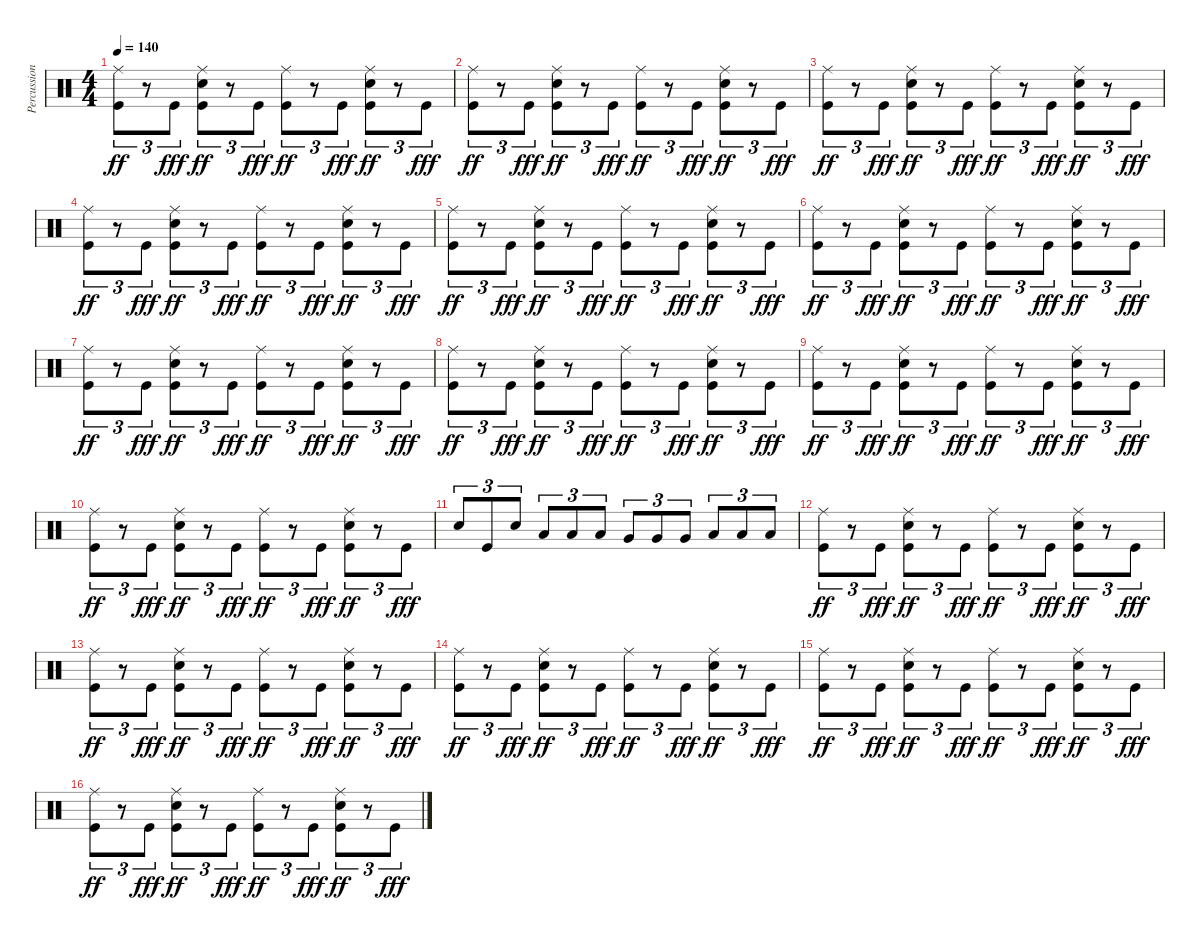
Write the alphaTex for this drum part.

\track ("Percussions" "Percussion") {instrument percussion}
\staff {score}
\articulation defaults
\ts (4 4)
\tempo 140
\clef neutral
\ks c
("Ride (middle)" "Kick (hit)").8{tu (3 2) dy ff} r.8{tu (3 2)} "Kick (hit)".8{tu (3 2) dy fff} ("Ride (middle)" "Snare (hit) 2" "Kick (hit)").8{tu (3 2) dy ff} r.8{tu (3 2)} "Kick (hit)".8{tu (3 2) dy fff} ("Ride (middle)" "Kick (hit)").8{tu (3 2) dy ff} r.8{tu (3 2)} "Kick (hit)".8{tu (3 2) dy fff} ("Ride (middle)" "Snare (hit) 2" "Kick (hit)").8{tu (3 2) dy ff} r.8{tu (3 2)} "Kick (hit)".8{tu (3 2) dy fff} |
("Ride (middle)" "Kick (hit)").8{tu (3 2) dy ff} r.8{tu (3 2)} "Kick (hit)".8{tu (3 2) dy fff} ("Ride (middle)" "Snare (hit) 2" "Kick (hit)").8{tu (3 2) dy ff} r.8{tu (3 2)} "Kick (hit)".8{tu (3 2) dy fff} ("Ride (middle)" "Kick (hit)").8{tu (3 2) dy ff} r.8{tu (3 2)} "Kick (hit)".8{tu (3 2) dy fff} ("Ride (middle)" "Snare (hit) 2" "Kick (hit)").8{tu (3 2) dy ff} r.8{tu (3 2)} "Kick (hit)".8{tu (3 2) dy fff} |
("Ride (middle)" "Kick (hit)").8{tu (3 2) dy ff} r.8{tu (3 2)} "Kick (hit)".8{tu (3 2) dy fff} ("Ride (middle)" "Snare (hit) 2" "Kick (hit)").8{tu (3 2) dy ff} r.8{tu (3 2)} "Kick (hit)".8{tu (3 2) dy fff} ("Ride (middle)" "Kick (hit)").8{tu (3 2) dy ff} r.8{tu (3 2)} "Kick (hit)".8{tu (3 2) dy fff} ("Ride (middle)" "Snare (hit) 2" "Kick (hit)").8{tu (3 2) dy ff} r.8{tu (3 2)} "Kick (hit)".8{tu (3 2) dy fff} |
("Ride (middle)" "Kick (hit)").8{tu (3 2) dy ff} r.8{tu (3 2)} "Kick (hit)".8{tu (3 2) dy fff} ("Ride (middle)" "Snare (hit) 2" "Kick (hit)").8{tu (3 2) dy ff} r.8{tu (3 2)} "Kick (hit)".8{tu (3 2) dy fff} ("Ride (middle)" "Kick (hit)").8{tu (3 2) dy ff} r.8{tu (3 2)} "Kick (hit)".8{tu (3 2) dy fff} ("Ride (middle)" "Snare (hit) 2" "Kick (hit)").8{tu (3 2) dy ff} r.8{tu (3 2)} "Kick (hit)".8{tu (3 2) dy fff} |
("Ride (middle)" "Kick (hit)").8{tu (3 2) dy ff} r.8{tu (3 2)} "Kick (hit)".8{tu (3 2) dy fff} ("Ride (middle)" "Snare (hit) 2" "Kick (hit)").8{tu (3 2) dy ff} r.8{tu (3 2)} "Kick (hit)".8{tu (3 2) dy fff} ("Ride (middle)" "Kick (hit)").8{tu (3 2) dy ff} r.8{tu (3 2)} "Kick (hit)".8{tu (3 2) dy fff} ("Ride (middle)" "Snare (hit) 2" "Kick (hit)").8{tu (3 2) dy ff} r.8{tu (3 2)} "Kick (hit)".8{tu (3 2) dy fff} |
("Ride (middle)" "Kick (hit)").8{tu (3 2) dy ff} r.8{tu (3 2)} "Kick (hit)".8{tu (3 2) dy fff} ("Ride (middle)" "Snare (hit) 2" "Kick (hit)").8{tu (3 2) dy ff} r.8{tu (3 2)} "Kick (hit)".8{tu (3 2) dy fff} ("Ride (middle)" "Kick (hit)").8{tu (3 2) dy ff} r.8{tu (3 2)} "Kick (hit)".8{tu (3 2) dy fff} ("Ride (middle)" "Snare (hit) 2" "Kick (hit)").8{tu (3 2) dy ff} r.8{tu (3 2)} "Kick (hit)".8{tu (3 2) dy fff} |
("Ride (middle)" "Kick (hit)").8{tu (3 2) dy ff} r.8{tu (3 2)} "Kick (hit)".8{tu (3 2) dy fff} ("Ride (middle)" "Snare (hit) 2" "Kick (hit)").8{tu (3 2) dy ff} r.8{tu (3 2)} "Kick (hit)".8{tu (3 2) dy fff} ("Ride (middle)" "Kick (hit)").8{tu (3 2) dy ff} r.8{tu (3 2)} "Kick (hit)".8{tu (3 2) dy fff} ("Ride (middle)" "Snare (hit) 2" "Kick (hit)").8{tu (3 2) dy ff} r.8{tu (3 2)} "Kick (hit)".8{tu (3 2) dy fff} |
("Ride (middle)" "Kick (hit)").8{tu (3 2) dy ff} r.8{tu (3 2)} "Kick (hit)".8{tu (3 2) dy fff} ("Ride (middle)" "Snare (hit) 2" "Kick (hit)").8{tu (3 2) dy ff} r.8{tu (3 2)} "Kick (hit)".8{tu (3 2) dy fff} ("Ride (middle)" "Kick (hit)").8{tu (3 2) dy ff} r.8{tu (3 2)} "Kick (hit)".8{tu (3 2) dy fff} ("Ride (middle)" "Snare (hit) 2" "Kick (hit)").8{tu (3 2) dy ff} r.8{tu (3 2)} "Kick (hit)".8{tu (3 2) dy fff} |
("Ride (middle)" "Kick (hit)").8{tu (3 2) dy ff} r.8{tu (3 2)} "Kick (hit)".8{tu (3 2) dy fff} ("Ride (middle)" "Snare (hit) 2" "Kick (hit)").8{tu (3 2) dy ff} r.8{tu (3 2)} "Kick (hit)".8{tu (3 2) dy fff} ("Ride (middle)" "Kick (hit)").8{tu (3 2) dy ff} r.8{tu (3 2)} "Kick (hit)".8{tu (3 2) dy fff} ("Ride (middle)" "Snare (hit) 2" "Kick (hit)").8{tu (3 2) dy ff} r.8{tu (3 2)} "Kick (hit)".8{tu (3 2) dy fff} |
("Ride (middle)" "Kick (hit)").8{tu (3 2) dy ff} r.8{tu (3 2)} "Kick (hit)".8{tu (3 2) dy fff} ("Ride (middle)" "Snare (hit) 2" "Kick (hit)").8{tu (3 2) dy ff} r.8{tu (3 2)} "Kick (hit)".8{tu (3 2) dy fff} ("Ride (middle)" "Kick (hit)").8{tu (3 2) dy ff} r.8{tu (3 2)} "Kick (hit)".8{tu (3 2) dy fff} ("Ride (middle)" "Snare (hit) 2" "Kick (hit)").8{tu (3 2) dy ff} r.8{tu (3 2)} "Kick (hit)".8{tu (3 2) dy fff} |
"Snare (hit) 2".8{tu (3 2)} "Kick (hit)".8{tu (3 2)} "Snare (hit) 2".8{tu (3 2)} "Low Tom (hit)".8{tu (3 2)} "Low Tom (hit)".8{tu (3 2)} "Low Tom (hit)".8{tu (3 2)} "Very Low Tom (hit)".8{tu (3 2)} "Very Low Tom (hit)".8{tu (3 2)} "Very Low Tom (hit)".8{tu (3 2)} "Low Floor Tom (hit)".8{tu (3 2)} "Low Floor Tom (hit)".8{tu (3 2)} "Low Floor Tom (hit)".8{tu (3 2)} |
("Ride (middle)" "Kick (hit)").8{tu (3 2) dy ff} r.8{tu (3 2)} "Kick (hit)".8{tu (3 2) dy fff} ("Ride (middle)" "Snare (hit) 2" "Kick (hit)").8{tu (3 2) dy ff} r.8{tu (3 2)} "Kick (hit)".8{tu (3 2) dy fff} ("Ride (middle)" "Kick (hit)").8{tu (3 2) dy ff} r.8{tu (3 2)} "Kick (hit)".8{tu (3 2) dy fff} ("Ride (middle)" "Snare (hit) 2" "Kick (hit)").8{tu (3 2) dy ff} r.8{tu (3 2)} "Kick (hit)".8{tu (3 2) dy fff} |
("Ride (middle)" "Kick (hit)").8{tu (3 2) dy ff} r.8{tu (3 2)} "Kick (hit)".8{tu (3 2) dy fff} ("Ride (middle)" "Snare (hit) 2" "Kick (hit)").8{tu (3 2) dy ff} r.8{tu (3 2)} "Kick (hit)".8{tu (3 2) dy fff} ("Ride (middle)" "Kick (hit)").8{tu (3 2) dy ff} r.8{tu (3 2)} "Kick (hit)".8{tu (3 2) dy fff} ("Ride (middle)" "Snare (hit) 2" "Kick (hit)").8{tu (3 2) dy ff} r.8{tu (3 2)} "Kick (hit)".8{tu (3 2) dy fff} |
("Ride (middle)" "Kick (hit)").8{tu (3 2) dy ff} r.8{tu (3 2)} "Kick (hit)".8{tu (3 2) dy fff} ("Ride (middle)" "Snare (hit) 2" "Kick (hit)").8{tu (3 2) dy ff} r.8{tu (3 2)} "Kick (hit)".8{tu (3 2) dy fff} ("Ride (middle)" "Kick (hit)").8{tu (3 2) dy ff} r.8{tu (3 2)} "Kick (hit)".8{tu (3 2) dy fff} ("Ride (middle)" "Snare (hit) 2" "Kick (hit)").8{tu (3 2) dy ff} r.8{tu (3 2)} "Kick (hit)".8{tu (3 2) dy fff} |
("Ride (middle)" "Kick (hit)").8{tu (3 2) dy ff} r.8{tu (3 2)} "Kick (hit)".8{tu (3 2) dy fff} ("Ride (middle)" "Snare (hit) 2" "Kick (hit)").8{tu (3 2) dy ff} r.8{tu (3 2)} "Kick (hit)".8{tu (3 2) dy fff} ("Ride (middle)" "Kick (hit)").8{tu (3 2) dy ff} r.8{tu (3 2)} "Kick (hit)".8{tu (3 2) dy fff} ("Ride (middle)" "Snare (hit) 2" "Kick (hit)").8{tu (3 2) dy ff} r.8{tu (3 2)} "Kick (hit)".8{tu (3 2) dy fff} |
("Ride (middle)" "Kick (hit)").8{tu (3 2) dy ff} r.8{tu (3 2)} "Kick (hit)".8{tu (3 2) dy fff} ("Ride (middle)" "Snare (hit) 2" "Kick (hit)").8{tu (3 2) dy ff} r.8{tu (3 2)} "Kick (hit)".8{tu (3 2) dy fff} ("Ride (middle)" "Kick (hit)").8{tu (3 2) dy ff} r.8{tu (3 2)} "Kick (hit)".8{tu (3 2) dy fff} ("Ride (middle)" "Snare (hit) 2" "Kick (hit)").8{tu (3 2) dy ff} r.8{tu (3 2)} "Kick (hit)".8{tu (3 2) dy fff}
